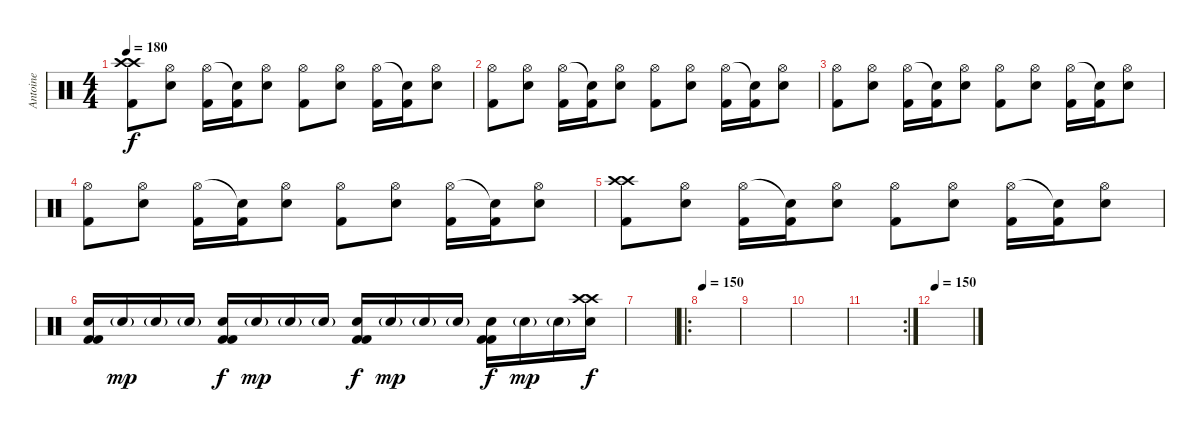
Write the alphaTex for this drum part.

\track ("Antoine" "Antoine") {instrument percussion}
\staff {score}
\articulation defaults
\ts (4 4)
\tempo 180
\clef neutral
\ks c
("Crash high (hit)" "Crash high (hit)" "Kick (hit) 2").8{dy f} ("Hi-Hat (open)" "Snare (hit) 2").8 ("Hi-Hat (open)" "Kick (hit) 2").16 ("Snare (hit)"{t} "Kick (hit) 2").16 ("Hi-Hat (open)" "Snare (hit) 2").8 ("Hi-Hat (open)" "Kick (hit) 2").8 ("Hi-Hat (open)" "Snare (hit) 2").8 ("Hi-Hat (open)" "Kick (hit) 2").16 ("Snare (hit)"{t} "Kick (hit) 2").16 ("Hi-Hat (open)" "Snare (hit) 2").8 |
("Hi-Hat (open)" "Kick (hit) 2").8 ("Hi-Hat (open)" "Snare (hit) 2").8 ("Hi-Hat (open)" "Kick (hit) 2").16 ("Snare (hit)"{t} "Kick (hit) 2").16 ("Hi-Hat (open)" "Snare (hit) 2").8 ("Hi-Hat (open)" "Kick (hit) 2").8 ("Hi-Hat (open)" "Snare (hit) 2").8 ("Hi-Hat (open)" "Kick (hit) 2").16 ("Snare (hit)"{t} "Kick (hit) 2").16 ("Hi-Hat (open)" "Snare (hit) 2").8 |
("Hi-Hat (open)" "Kick (hit) 2").8 ("Hi-Hat (open)" "Snare (hit) 2").8 ("Hi-Hat (open)" "Kick (hit) 2").16 ("Snare (hit)"{t} "Kick (hit) 2").16 ("Hi-Hat (open)" "Snare (hit) 2").8 ("Hi-Hat (open)" "Kick (hit) 2").8 ("Hi-Hat (open)" "Snare (hit) 2").8 ("Hi-Hat (open)" "Kick (hit) 2").16 ("Snare (hit)"{t} "Kick (hit) 2").16 ("Hi-Hat (open)" "Snare (hit) 2").8 |
("Hi-Hat (open)" "Kick (hit) 2").8 ("Hi-Hat (open)" "Snare (hit) 2").8 ("Hi-Hat (open)" "Kick (hit) 2").16 ("Snare (hit)"{t} "Kick (hit) 2").16 ("Hi-Hat (open)" "Snare (hit) 2").8 ("Hi-Hat (open)" "Kick (hit) 2").8 ("Hi-Hat (open)" "Snare (hit) 2").8 ("Hi-Hat (open)" "Kick (hit) 2").16 ("Snare (hit)"{t} "Kick (hit) 2").16 ("Hi-Hat (open)" "Snare (hit) 2").8 |
("Crash high (hit)" "Crash high (hit)" "Kick (hit) 2").8 ("Hi-Hat (open)" "Snare (hit) 2").8 ("Hi-Hat (open)" "Kick (hit) 2").16 ("Snare (hit)"{t} "Kick (hit) 2").16 ("Hi-Hat (open)" "Snare (hit) 2").8 ("Hi-Hat (open)" "Kick (hit) 2").8 ("Hi-Hat (open)" "Snare (hit) 2").8 ("Hi-Hat (open)" "Kick (hit) 2").16 ("Snare (hit)"{t} "Kick (hit) 2").16 ("Hi-Hat (open)" "Snare (hit) 2").8 |
("Electric Snare (hit)" "Kick (hit) 2" "Kick (hit) 2").16 "Electric Snare (hit)"{g}.16{dy mp} "Electric Snare (hit)"{g}.16 "Electric Snare (hit)"{g}.16 ("Electric Snare (hit)" "Kick (hit) 2" "Kick (hit) 2").16{dy f} "Electric Snare (hit)"{g}.16{dy mp} "Electric Snare (hit)"{g}.16 "Electric Snare (hit)"{g}.16 ("Electric Snare (hit)" "Kick (hit) 2" "Kick (hit) 2").16{dy f} "Electric Snare (hit)"{g}.16{dy mp} "Electric Snare (hit)"{g}.16 "Electric Snare (hit)"{g}.16 ("Electric Snare (hit)" "Kick (hit) 2" "Kick (hit) 2").16{dy f} "Electric Snare (hit)"{g}.16{dy mp} "Electric Snare (hit)"{g}.16 ("Crash high (hit)" "Crash high (hit)" "Electric Snare (hit)").16{dy f} |
|
\ro
\tempo 150
|
|
|
\rc 2
|
\tempo 150
